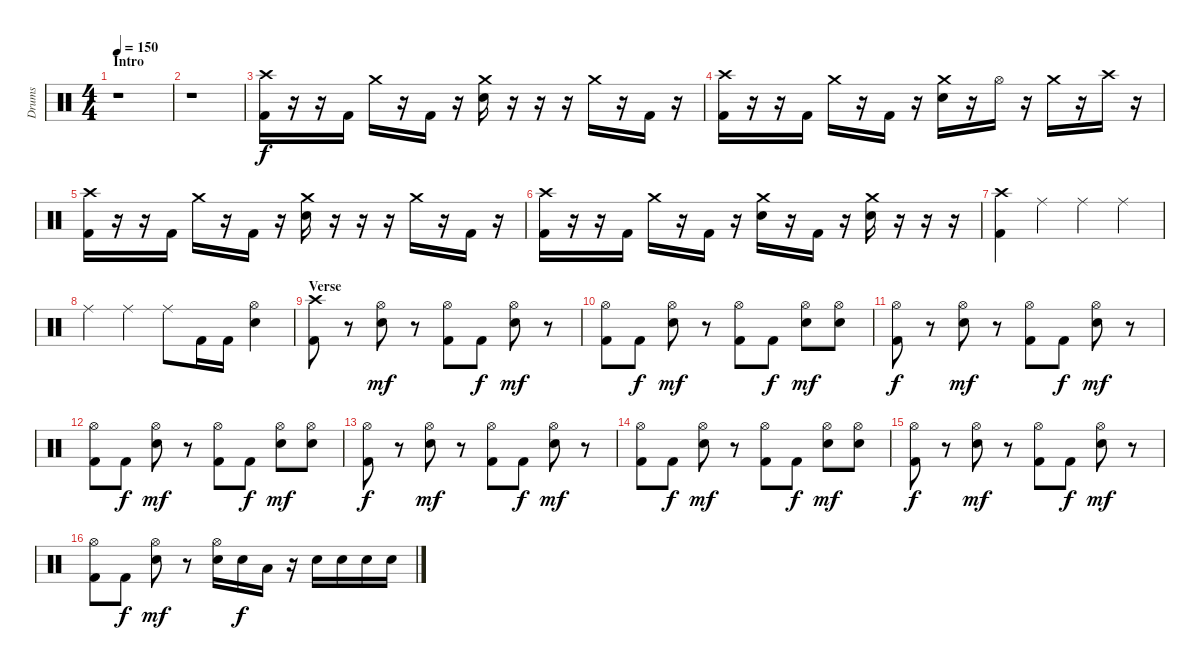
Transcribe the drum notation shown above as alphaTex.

\track ("Drums" "Drums") {instrument percussion}
\staff {score}
\articulation defaults
\ts (4 4)
\section ("" "Intro")
\tempo 150
\clef neutral
\ks c
r.1{dy f} |
r.1 |
("Crash high (hit)" "Kick (hit) 2").16 r.16 r.16 "Kick (hit) 2".16 "Crash medium (hit)".16 r.16 "Kick (hit) 2".16 r.16 ("Crash medium (hit)" "Electric Snare (hit)").16 r.16 r.16 r.16 "Crash medium (hit)".16 r.16 "Kick (hit) 2".16 r.16 |
("Crash high (hit)" "Kick (hit) 2").16 r.16 r.16 "Kick (hit) 2".16 "Crash medium (hit)".16 r.16 "Kick (hit) 2".16 r.16 ("Crash medium (hit)" "Electric Snare (hit)").16 r.16 "Hi-Hat (open)".16 r.16 "Crash medium (hit)".16 r.16 "Crash high (hit)".16 r.16 |
("Crash high (hit)" "Kick (hit) 2").16 r.16 r.16 "Kick (hit) 2".16 "Crash medium (hit)".16 r.16 "Kick (hit) 2".16 r.16 ("Crash medium (hit)" "Electric Snare (hit)").16 r.16 r.16 r.16 "Crash medium (hit)".16 r.16 "Kick (hit) 2".16 r.16 |
("Crash high (hit)" "Kick (hit) 2").16 r.16 r.16 "Kick (hit) 2".16 "Crash medium (hit)".16 r.16 "Kick (hit) 2".16 r.16 ("Crash medium (hit)" "Electric Snare (hit)").16 r.16 "Kick (hit) 2".16 r.16 ("Crash medium (hit)" "Electric Snare (hit)").16 r.16 r.16 r.16 |
("Crash high (hit)" "Kick (hit) 2").4 "Ride (middle)".4 "Ride (middle)".4 "Ride (middle)".4 |
"Ride (middle)".4 "Ride (middle)".4 "Ride (middle)".8 "Kick (hit) 2".16 "Kick (hit) 2".16 ("Hi-Hat (open)" "Electric Snare (hit)").4 |
\section ("" "Verse")
("Crash high (hit)" "Kick (hit) 2").8 r.8 ("Hi-Hat (open)" "Electric Snare (hit)").8{dy mf} r.8 ("Hi-Hat (open)" "Kick (hit) 2").8 "Kick (hit) 2".8{dy f} ("Hi-Hat (open)" "Electric Snare (hit)").8{dy mf} r.8 |
("Hi-Hat (open)" "Kick (hit) 2").8 "Kick (hit) 2".8{dy f} ("Hi-Hat (open)" "Electric Snare (hit)").8{dy mf} r.8 ("Hi-Hat (open)" "Kick (hit) 2").8 "Kick (hit) 2".8{dy f} ("Hi-Hat (open)" "Electric Snare (hit)").8{dy mf} ("Hi-Hat (open)" "Electric Snare (hit)").8 |
("Hi-Hat (open)" "Kick (hit) 2").8{dy f} r.8 ("Hi-Hat (open)" "Electric Snare (hit)").8{dy mf} r.8 ("Hi-Hat (open)" "Kick (hit) 2").8 "Kick (hit) 2".8{dy f} ("Hi-Hat (open)" "Electric Snare (hit)").8{dy mf} r.8 |
("Hi-Hat (open)" "Kick (hit) 2").8 "Kick (hit) 2".8{dy f} ("Hi-Hat (open)" "Electric Snare (hit)").8{dy mf} r.8 ("Hi-Hat (open)" "Kick (hit) 2").8 "Kick (hit) 2".8{dy f} ("Hi-Hat (open)" "Electric Snare (hit)").8{dy mf} ("Hi-Hat (open)" "Electric Snare (hit)").8 |
("Hi-Hat (open)" "Kick (hit) 2").8{dy f} r.8 ("Hi-Hat (open)" "Electric Snare (hit)").8{dy mf} r.8 ("Hi-Hat (open)" "Kick (hit) 2").8 "Kick (hit) 2".8{dy f} ("Hi-Hat (open)" "Electric Snare (hit)").8{dy mf} r.8 |
("Hi-Hat (open)" "Kick (hit) 2").8 "Kick (hit) 2".8{dy f} ("Hi-Hat (open)" "Electric Snare (hit)").8{dy mf} r.8 ("Hi-Hat (open)" "Kick (hit) 2").8 "Kick (hit) 2".8{dy f} ("Hi-Hat (open)" "Electric Snare (hit)").8{dy mf} ("Hi-Hat (open)" "Electric Snare (hit)").8 |
("Hi-Hat (open)" "Kick (hit) 2").8{dy f} r.8 ("Hi-Hat (open)" "Electric Snare (hit)").8{dy mf} r.8 ("Hi-Hat (open)" "Kick (hit) 2").8 "Kick (hit) 2".8{dy f} ("Hi-Hat (open)" "Electric Snare (hit)").8{dy mf} r.8 |
("Hi-Hat (open)" "Kick (hit) 2").8 "Kick (hit) 2".8{dy f} ("Hi-Hat (open)" "Electric Snare (hit)").8{dy mf} r.8 ("Hi-Hat (open)" "Electric Snare (hit)").16 "Electric Snare (hit)".16{dy f} "Low Tom (hit)".16 r.16 "Electric Snare (hit)".16 "Electric Snare (hit)".16 "Electric Snare (hit)".16 "Electric Snare (hit)".16
